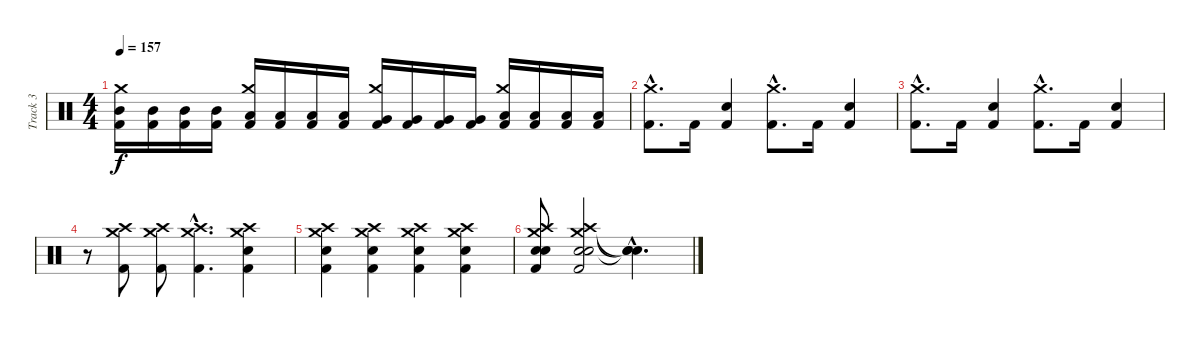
\track ("Track 3" "Track 3") {instrument percussion}
\staff {score}
\articulation defaults
\ts (4 4)
\tempo 157
\clef neutral
\ks c
("Mid Tom (hit)" "Kick (hit) 2" "Crash medium (hit)").16{dy f} ("Mid Tom (hit)" "Kick (hit) 2").16 ("Mid Tom (hit)" "Kick (hit) 2").16 ("Mid Tom (hit)" "Kick (hit) 2").16 ("Low Tom (hit)" "Kick (hit) 2" "Crash medium (hit)").16 ("Low Tom (hit)" "Kick (hit) 2").16 ("Low Tom (hit)" "Kick (hit) 2").16 ("Low Tom (hit)" "Kick (hit) 2").16 ("Very Low Tom (hit)" "Kick (hit) 2" "Crash medium (hit)").16 ("Very Low Tom (hit)" "Kick (hit) 2").16 ("Very Low Tom (hit)" "Kick (hit) 2").16 ("Very Low Tom (hit)" "Kick (hit) 2").16 ("Low Floor Tom (hit)" "Kick (hit) 2" "Crash medium (hit)").16 ("Low Floor Tom (hit)" "Kick (hit) 2").16 ("Low Floor Tom (hit)" "Kick (hit) 2").16 ("Low Floor Tom (hit)" "Kick (hit) 2").16 |
("Kick (hit) 2"{hac} "Crash medium (hit)"{hac}).8{d} "Kick (hit) 2".16 ("Kick (hit) 2" "Snare (hit) 2").4 ("Kick (hit) 2"{hac} "Crash medium (hit)"{hac}).8{d} "Kick (hit) 2".16 ("Kick (hit) 2" "Snare (hit) 2").4 |
("Kick (hit) 2"{hac} "Crash medium (hit)"{hac}).8{d} "Kick (hit) 2".16 ("Kick (hit) 2" "Snare (hit) 2").4 ("Kick (hit) 2"{hac} "Crash medium (hit)"{hac}).8{d} "Kick (hit) 2".16 ("Kick (hit) 2" "Snare (hit) 2").4 |
r.8 ("Crash medium (hit)" "Crash high (hit)" "Kick (hit) 2").8 ("Crash medium (hit)" "Crash high (hit)" "Kick (hit) 2").8 ("Crash medium (hit)"{hac} "Crash high (hit)"{hac} "Kick (hit) 2"{hac}).4{d} ("Snare (hit) 2" "Crash medium (hit)" "Crash high (hit)" "Kick (hit) 2").4 |
("Snare (hit) 2" "Crash medium (hit)" "Crash high (hit)" "Kick (hit) 2").4 ("Snare (hit) 2" "Crash medium (hit)" "Crash high (hit)" "Kick (hit) 2").4 ("Snare (hit) 2" "Crash medium (hit)" "Crash high (hit)" "Kick (hit) 2").4 ("Snare (hit) 2" "Crash medium (hit)" "Crash high (hit)" "Kick (hit) 2").4 |
("Snare (hit) 2" "Crash medium (hit)" "Crash high (hit)" "Electric Snare (hit)" "Kick (hit) 2").8 ("Snare (hit) 2" "Crash medium (hit)" "Crash high (hit)" "Electric Snare (hit)" "Kick (hit) 2").2 ("Snare (hit)"{hac t} "Snare (hit)"{hac t} "Snare (hit)"{hac t}).4{d}
